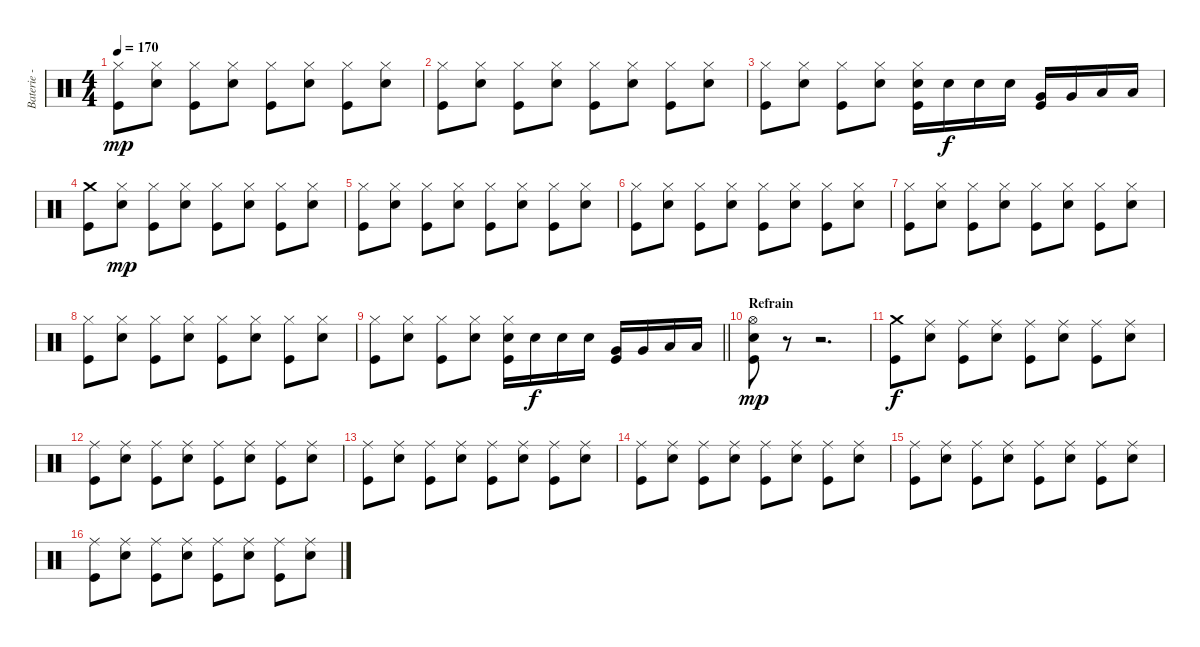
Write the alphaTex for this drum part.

\track ("Baterie - Guillaume" "Baterie - ") {instrument percussion}
\staff {score}
\articulation defaults
\ts (4 4)
\tempo 170
\clef neutral
\ks c
("Hi-Hat (closed)" "Kick (hit)").8{dy mp} ("Hi-Hat (closed)" "Electric Snare (hit)").8 ("Hi-Hat (closed)" "Kick (hit)").8 ("Hi-Hat (closed)" "Electric Snare (hit)").8 ("Hi-Hat (closed)" "Kick (hit)").8 ("Hi-Hat (closed)" "Electric Snare (hit)").8 ("Hi-Hat (closed)" "Kick (hit)").8 ("Hi-Hat (closed)" "Electric Snare (hit)").8 |
("Hi-Hat (closed)" "Kick (hit)").8 ("Hi-Hat (closed)" "Electric Snare (hit)").8 ("Hi-Hat (closed)" "Kick (hit)").8 ("Hi-Hat (closed)" "Electric Snare (hit)").8 ("Hi-Hat (closed)" "Kick (hit)").8 ("Hi-Hat (closed)" "Electric Snare (hit)").8 ("Hi-Hat (closed)" "Kick (hit)").8 ("Hi-Hat (closed)" "Electric Snare (hit)").8 |
("Hi-Hat (closed)" "Kick (hit)").8 ("Hi-Hat (closed)" "Electric Snare (hit)").8 ("Hi-Hat (closed)" "Kick (hit)").8 ("Hi-Hat (closed)" "Electric Snare (hit)").8 ("Hi-Hat (closed)" "Electric Snare (hit)" "Kick (hit)").16 "Electric Snare (hit)".16{dy f} "Electric Snare (hit)".16 "Electric Snare (hit)".16 ("Very Low Tom (hit)" "Kick (hit)").16 "Very Low Tom (hit)".16 "Low Tom (hit)".16 "Low Tom (hit)".16 |
("Crash medium (hit)" "Kick (hit)").8 ("Hi-Hat (closed)" "Electric Snare (hit)").8{dy mp} ("Hi-Hat (closed)" "Kick (hit)").8 ("Hi-Hat (closed)" "Electric Snare (hit)").8 ("Hi-Hat (closed)" "Kick (hit)").8 ("Hi-Hat (closed)" "Electric Snare (hit)").8 ("Hi-Hat (closed)" "Kick (hit)").8 ("Hi-Hat (closed)" "Electric Snare (hit)").8 |
("Hi-Hat (closed)" "Kick (hit)").8 ("Hi-Hat (closed)" "Electric Snare (hit)").8 ("Hi-Hat (closed)" "Kick (hit)").8 ("Hi-Hat (closed)" "Electric Snare (hit)").8 ("Hi-Hat (closed)" "Kick (hit)").8 ("Hi-Hat (closed)" "Electric Snare (hit)").8 ("Hi-Hat (closed)" "Kick (hit)").8 ("Hi-Hat (closed)" "Electric Snare (hit)").8 |
("Hi-Hat (closed)" "Kick (hit)").8 ("Hi-Hat (closed)" "Electric Snare (hit)").8 ("Hi-Hat (closed)" "Kick (hit)").8 ("Hi-Hat (closed)" "Electric Snare (hit)").8 ("Hi-Hat (closed)" "Kick (hit)").8 ("Hi-Hat (closed)" "Electric Snare (hit)").8 ("Hi-Hat (closed)" "Kick (hit)").8 ("Hi-Hat (closed)" "Electric Snare (hit)").8 |
("Hi-Hat (closed)" "Kick (hit)").8 ("Hi-Hat (closed)" "Electric Snare (hit)").8 ("Hi-Hat (closed)" "Kick (hit)").8 ("Hi-Hat (closed)" "Electric Snare (hit)").8 ("Hi-Hat (closed)" "Kick (hit)").8 ("Hi-Hat (closed)" "Electric Snare (hit)").8 ("Hi-Hat (closed)" "Kick (hit)").8 ("Hi-Hat (closed)" "Electric Snare (hit)").8 |
("Hi-Hat (closed)" "Kick (hit)").8 ("Hi-Hat (closed)" "Electric Snare (hit)").8 ("Hi-Hat (closed)" "Kick (hit)").8 ("Hi-Hat (closed)" "Electric Snare (hit)").8 ("Hi-Hat (closed)" "Kick (hit)").8 ("Hi-Hat (closed)" "Electric Snare (hit)").8 ("Hi-Hat (closed)" "Kick (hit)").8 ("Hi-Hat (closed)" "Electric Snare (hit)").8 |
\barLineRight lightlight
("Hi-Hat (closed)" "Kick (hit)").8 ("Hi-Hat (closed)" "Electric Snare (hit)").8 ("Hi-Hat (closed)" "Kick (hit)").8 ("Hi-Hat (closed)" "Electric Snare (hit)").8 ("Hi-Hat (closed)" "Electric Snare (hit)" "Kick (hit)").16 "Electric Snare (hit)".16{dy f} "Electric Snare (hit)".16 "Electric Snare (hit)".16 ("Very Low Tom (hit)" "Kick (hit)").16 "Very Low Tom (hit)".16 "Low Tom (hit)".16 "Low Tom (hit)".16 |
\section ("" "Refrain")
("Hi-Hat (open)" "Electric Snare (hit)" "Kick (hit)").8{dy mp} r.8 r.2{d} |
("Crash medium (hit)" "Kick (hit)").8{dy f} ("Ride (middle)" "Electric Snare (hit)").8 ("Ride (middle)" "Kick (hit)").8 ("Ride (middle)" "Electric Snare (hit)").8 ("Ride (middle)" "Kick (hit)").8 ("Ride (middle)" "Electric Snare (hit)").8 ("Ride (middle)" "Kick (hit)").8 ("Ride (middle)" "Electric Snare (hit)").8 |
("Ride (middle)" "Kick (hit)").8 ("Ride (middle)" "Electric Snare (hit)").8 ("Ride (middle)" "Kick (hit)").8 ("Ride (middle)" "Electric Snare (hit)").8 ("Ride (middle)" "Kick (hit)").8 ("Ride (middle)" "Electric Snare (hit)").8 ("Ride (middle)" "Kick (hit)").8 ("Ride (middle)" "Electric Snare (hit)").8 |
("Ride (middle)" "Kick (hit)").8 ("Ride (middle)" "Electric Snare (hit)").8 ("Ride (middle)" "Kick (hit)").8 ("Ride (middle)" "Electric Snare (hit)").8 ("Ride (middle)" "Kick (hit)").8 ("Ride (middle)" "Electric Snare (hit)").8 ("Ride (middle)" "Kick (hit)").8 ("Ride (middle)" "Electric Snare (hit)").8 |
("Ride (middle)" "Kick (hit)").8 ("Ride (middle)" "Electric Snare (hit)").8 ("Ride (middle)" "Kick (hit)").8 ("Ride (middle)" "Electric Snare (hit)").8 ("Ride (middle)" "Kick (hit)").8 ("Ride (middle)" "Electric Snare (hit)").8 ("Ride (middle)" "Kick (hit)").8 ("Ride (middle)" "Electric Snare (hit)").8 |
("Ride (middle)" "Kick (hit)").8 ("Ride (middle)" "Electric Snare (hit)").8 ("Ride (middle)" "Kick (hit)").8 ("Ride (middle)" "Electric Snare (hit)").8 ("Ride (middle)" "Kick (hit)").8 ("Ride (middle)" "Electric Snare (hit)").8 ("Ride (middle)" "Kick (hit)").8 ("Ride (middle)" "Electric Snare (hit)").8 |
("Ride (middle)" "Kick (hit)").8 ("Ride (middle)" "Electric Snare (hit)").8 ("Ride (middle)" "Kick (hit)").8 ("Ride (middle)" "Electric Snare (hit)").8 ("Ride (middle)" "Kick (hit)").8 ("Ride (middle)" "Electric Snare (hit)").8 ("Ride (middle)" "Kick (hit)").8 ("Ride (middle)" "Electric Snare (hit)").8
